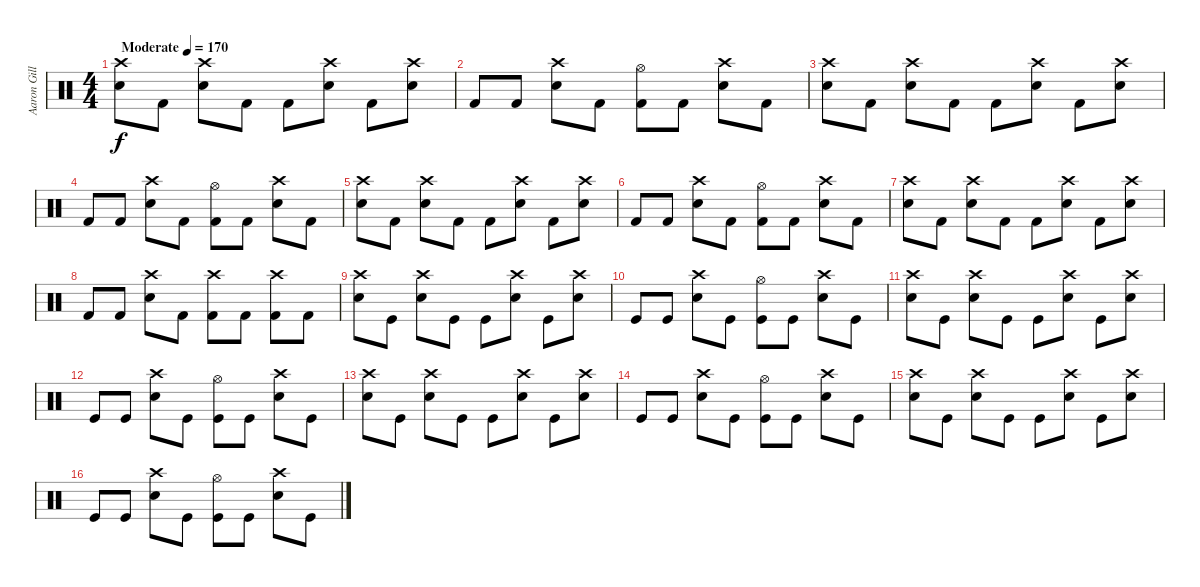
\track ("Aaron Gillepsie (Drums)" "Aaron Gill") {instrument percussion}
\staff {score}
\articulation defaults
\ts (4 4)
\tempo (170 "Moderate")
\clef neutral
\ks c
("Crash high (hit)" "Snare (hit) 2").8{dy f} "Kick (hit) 2".8 ("Crash high (hit)" "Snare (hit) 2").8 "Kick (hit) 2".8 "Kick (hit) 2".8 ("Crash high (hit)" "Snare (hit) 2").8 "Kick (hit) 2".8 ("Crash high (hit)" "Snare (hit) 2").8 |
"Kick (hit) 2".8 "Kick (hit) 2".8 ("Crash high (hit)" "Snare (hit) 2").8 "Kick (hit) 2".8 ("Hi-Hat (open)" "Kick (hit) 2").8 "Kick (hit) 2".8 ("Crash high (hit)" "Snare (hit) 2").8 "Kick (hit) 2".8 |
("Crash high (hit)" "Snare (hit) 2").8 "Kick (hit) 2".8 ("Crash high (hit)" "Snare (hit) 2").8 "Kick (hit) 2".8 "Kick (hit) 2".8 ("Crash high (hit)" "Snare (hit) 2").8 "Kick (hit) 2".8 ("Crash high (hit)" "Snare (hit) 2").8 |
"Kick (hit) 2".8 "Kick (hit) 2".8 ("Crash high (hit)" "Snare (hit) 2").8 "Kick (hit) 2".8 ("Hi-Hat (open)" "Kick (hit) 2").8 "Kick (hit) 2".8 ("Crash high (hit)" "Snare (hit) 2").8 "Kick (hit) 2".8 |
("Crash high (hit)" "Snare (hit) 2").8 "Kick (hit) 2".8 ("Crash high (hit)" "Snare (hit) 2").8 "Kick (hit) 2".8 "Kick (hit) 2".8 ("Crash high (hit)" "Snare (hit) 2").8 "Kick (hit) 2".8 ("Crash high (hit)" "Snare (hit) 2").8 |
"Kick (hit) 2".8 "Kick (hit) 2".8 ("Crash high (hit)" "Snare (hit) 2").8 "Kick (hit) 2".8 ("Hi-Hat (open)" "Kick (hit) 2").8 "Kick (hit) 2".8 ("Crash high (hit)" "Snare (hit) 2").8 "Kick (hit) 2".8 |
("Crash high (hit)" "Snare (hit) 2").8 "Kick (hit) 2".8 ("Crash high (hit)" "Snare (hit) 2").8 "Kick (hit) 2".8 "Kick (hit) 2".8 ("Crash high (hit)" "Snare (hit) 2").8 "Kick (hit) 2".8 ("Crash high (hit)" "Snare (hit) 2").8 |
"Kick (hit) 2".8 "Kick (hit) 2".8 ("Crash high (hit)" "Snare (hit) 2").8 "Kick (hit) 2".8 ("Crash high (hit)" "Kick (hit) 2").8 "Kick (hit) 2".8 ("Crash high (hit)" "Kick (hit) 2").8 "Kick (hit) 2".8 |
("Crash high (hit)" "Electric Snare (hit)").8 "Kick (hit)".8 ("Crash high (hit)" "Electric Snare (hit)").8 "Kick (hit)".8 "Kick (hit)".8 ("Crash high (hit)" "Electric Snare (hit)").8 "Kick (hit)".8 ("Crash high (hit)" "Electric Snare (hit)").8 |
"Kick (hit)".8 "Kick (hit)".8 ("Crash high (hit)" "Electric Snare (hit)").8 "Kick (hit)".8 ("Hi-Hat (open)" "Kick (hit)").8 "Kick (hit)".8 ("Crash high (hit)" "Electric Snare (hit)").8 "Kick (hit)".8 |
("Crash high (hit)" "Electric Snare (hit)").8 "Kick (hit)".8 ("Crash high (hit)" "Electric Snare (hit)").8 "Kick (hit)".8 "Kick (hit)".8 ("Crash high (hit)" "Electric Snare (hit)").8 "Kick (hit)".8 ("Crash high (hit)" "Electric Snare (hit)").8 |
"Kick (hit)".8 "Kick (hit)".8 ("Crash high (hit)" "Electric Snare (hit)").8 "Kick (hit)".8 ("Hi-Hat (open)" "Kick (hit)").8 "Kick (hit)".8 ("Crash high (hit)" "Electric Snare (hit)").8 "Kick (hit)".8 |
("Crash high (hit)" "Electric Snare (hit)").8 "Kick (hit)".8 ("Crash high (hit)" "Electric Snare (hit)").8 "Kick (hit)".8 "Kick (hit)".8 ("Crash high (hit)" "Electric Snare (hit)").8 "Kick (hit)".8 ("Crash high (hit)" "Electric Snare (hit)").8 |
"Kick (hit)".8 "Kick (hit)".8 ("Crash high (hit)" "Electric Snare (hit)").8 "Kick (hit)".8 ("Hi-Hat (open)" "Kick (hit)").8 "Kick (hit)".8 ("Crash high (hit)" "Electric Snare (hit)").8 "Kick (hit)".8 |
("Crash high (hit)" "Electric Snare (hit)").8 "Kick (hit)".8 ("Crash high (hit)" "Electric Snare (hit)").8 "Kick (hit)".8 "Kick (hit)".8 ("Crash high (hit)" "Electric Snare (hit)").8 "Kick (hit)".8 ("Crash high (hit)" "Electric Snare (hit)").8 |
"Kick (hit)".8 "Kick (hit)".8 ("Crash high (hit)" "Electric Snare (hit)").8 "Kick (hit)".8 ("Hi-Hat (open)" "Kick (hit)").8 "Kick (hit)".8 ("Crash high (hit)" "Electric Snare (hit)").8 "Kick (hit)".8
